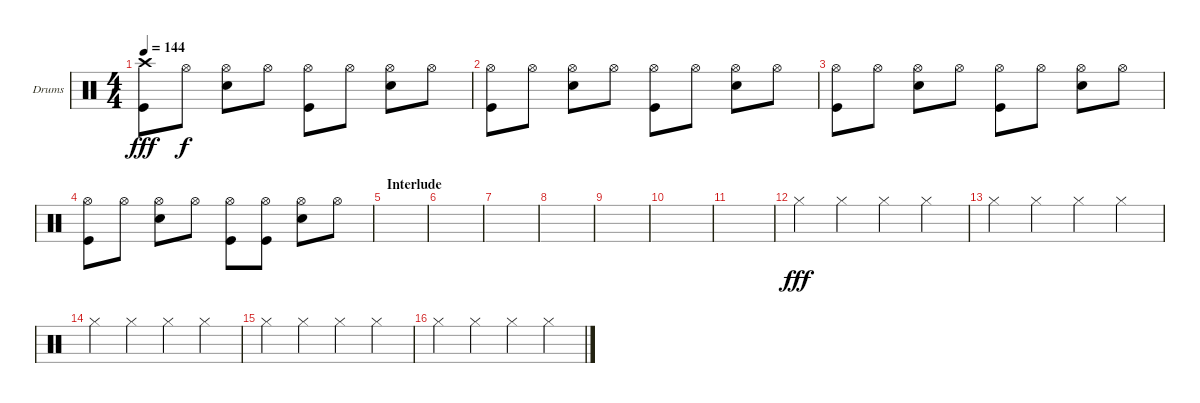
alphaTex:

\bracketExtendMode groupsimilarinstruments
\firstSystemTrackNameOrientation horizontal
\otherSystemsTrackNameOrientation horizontal
\track ("Drums" "Drums") {instrument percussion}
\staff {score}
\articulation defaults
\ts (4 4)
\tempo 144
\clef neutral
\ks c
("Crash high (hit)" "Kick (hit)").8{dy fff} "Hi-Hat (open)".8{dy f} ("Hi-Hat (open)" "Snare (hit) 2").8 "Hi-Hat (open)".8 ("Hi-Hat (open)" "Kick (hit)").8 "Hi-Hat (open)".8 ("Hi-Hat (open)" "Snare (hit) 2").8 "Hi-Hat (open)".8 |
("Hi-Hat (open)" "Kick (hit)").8 "Hi-Hat (open)".8 ("Hi-Hat (open)" "Snare (hit) 2").8 "Hi-Hat (open)".8 ("Hi-Hat (open)" "Kick (hit)").8 "Hi-Hat (open)".8 ("Hi-Hat (open)" "Snare (hit) 2").8 "Hi-Hat (open)".8 |
("Hi-Hat (open)" "Kick (hit)").8 "Hi-Hat (open)".8 ("Hi-Hat (open)" "Snare (hit) 2").8 "Hi-Hat (open)".8 ("Hi-Hat (open)" "Kick (hit)").8 "Hi-Hat (open)".8 ("Hi-Hat (open)" "Snare (hit) 2").8 "Hi-Hat (open)".8 |
("Hi-Hat (open)" "Kick (hit)").8 "Hi-Hat (open)".8 ("Hi-Hat (open)" "Snare (hit) 2").8 "Hi-Hat (open)".8 ("Hi-Hat (open)" "Kick (hit)").8 ("Hi-Hat (open)" "Kick (hit)").8 ("Hi-Hat (open)" "Snare (hit) 2").8 "Hi-Hat (open)".8 |
\section ("" "Interlude")
|
|
|
|
|
|
|
"Hi-Hat (closed)".4{dy fff} "Hi-Hat (closed)".4 "Hi-Hat (closed)".4 "Hi-Hat (closed)".4 |
"Hi-Hat (closed)".4 "Hi-Hat (closed)".4 "Hi-Hat (closed)".4 "Hi-Hat (closed)".4 |
"Hi-Hat (closed)".4 "Hi-Hat (closed)".4 "Hi-Hat (closed)".4 "Hi-Hat (closed)".4 |
"Hi-Hat (closed)".4 "Hi-Hat (closed)".4 "Hi-Hat (closed)".4 "Hi-Hat (closed)".4 |
"Hi-Hat (closed)".4 "Hi-Hat (closed)".4 "Hi-Hat (closed)".4 "Hi-Hat (closed)".4
